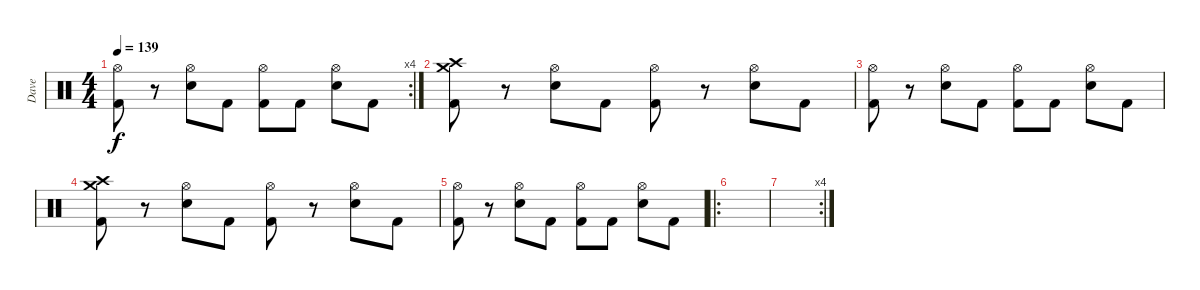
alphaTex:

\track ("Dave" "Dave") {instrument percussion}
\staff {score}
\articulation defaults
\rc 4
\ts (4 4)
\tempo 139
\clef neutral
\ks c
("Hi-Hat (open)" "Kick (hit) 2").8{dy f} r.8 ("Hi-Hat (open)" "Snare (hit) 2").8 "Kick (hit) 2".8 ("Hi-Hat (open)" "Kick (hit) 2").8 "Kick (hit) 2".8 ("Hi-Hat (open)" "Snare (hit) 2").8 "Kick (hit) 2".8 |
("Crash medium (hit)" "Crash high (hit)" "Kick (hit) 2").8{volume 9} r.8 ("Hi-Hat (open)" "Snare (hit) 2").8 "Kick (hit) 2".8 ("Hi-Hat (open)" "Kick (hit) 2").8 r.8 ("Hi-Hat (open)" "Snare (hit) 2").8 "Kick (hit) 2".8 |
("Hi-Hat (open)" "Kick (hit) 2").8{volume 8} r.8 ("Hi-Hat (open)" "Snare (hit) 2").8 "Kick (hit) 2".8 ("Hi-Hat (open)" "Kick (hit) 2").8 "Kick (hit) 2".8 ("Hi-Hat (open)" "Snare (hit) 2").8 "Kick (hit) 2".8 |
("Crash medium (hit)" "Crash high (hit)" "Kick (hit) 2").8{volume 6} r.8 ("Hi-Hat (open)" "Snare (hit) 2").8 "Kick (hit) 2".8 ("Hi-Hat (open)" "Kick (hit) 2").8 r.8 ("Hi-Hat (open)" "Snare (hit) 2").8 "Kick (hit) 2".8 |
("Hi-Hat (open)" "Kick (hit) 2").8{volume 3} r.8 ("Hi-Hat (open)" "Snare (hit) 2").8 "Kick (hit) 2".8 ("Hi-Hat (open)" "Kick (hit) 2").8 "Kick (hit) 2".8 ("Hi-Hat (open)" "Snare (hit) 2").8 "Kick (hit) 2".8 |
\ro
|
\rc 4
